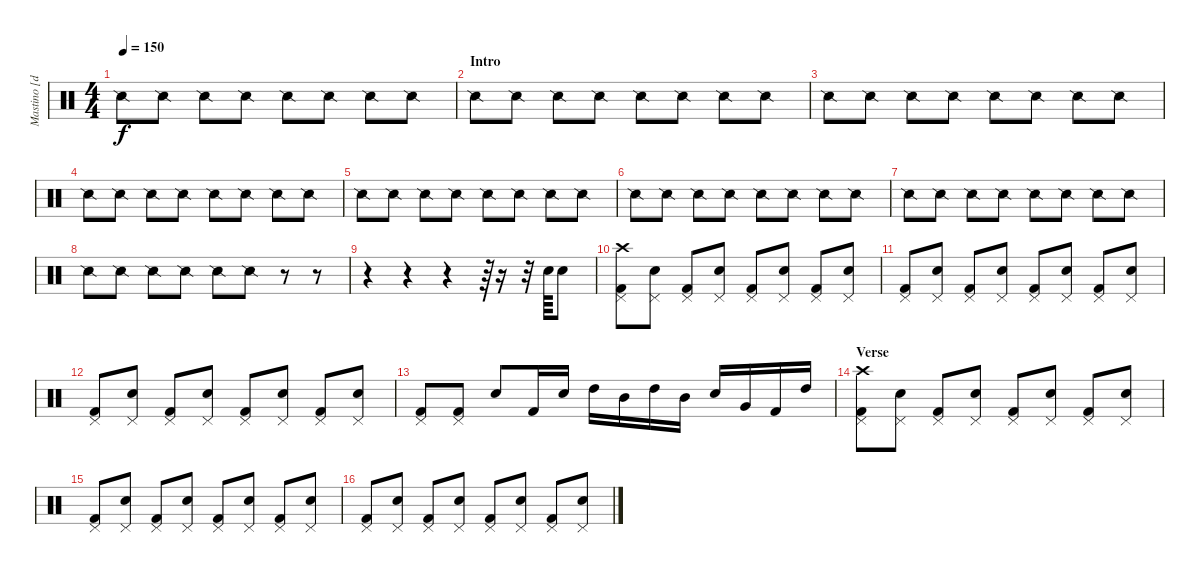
\track ("Mastino [drums]" "Mastino [d") {instrument percussion}
\staff {score}
\articulation defaults
\ts (4 4)
\tempo 150
\clef neutral
\ks c "Snare (side stick) 2".8{dy f} "Snare (side stick) 2".8 "Snare (side stick) 2".8 "Snare (side stick) 2".8 "Snare (side stick) 2".8 "Snare (side stick) 2".8 "Snare (side stick) 2".8 "Snare (side stick) 2".8
|
\section ("" "Intro")
"Snare (side stick) 2".8 "Snare (side stick) 2".8 "Snare (side stick) 2".8 "Snare (side stick) 2".8 "Snare (side stick) 2".8 "Snare (side stick) 2".8 "Snare (side stick) 2".8 "Snare (side stick) 2".8 |
"Snare (side stick) 2".8 "Snare (side stick) 2".8 "Snare (side stick) 2".8 "Snare (side stick) 2".8 "Snare (side stick) 2".8 "Snare (side stick) 2".8 "Snare (side stick) 2".8 "Snare (side stick) 2".8 |
"Snare (side stick) 2".8 "Snare (side stick) 2".8 "Snare (side stick) 2".8 "Snare (side stick) 2".8 "Snare (side stick) 2".8 "Snare (side stick) 2".8 "Snare (side stick) 2".8 "Snare (side stick) 2".8 |
"Snare (side stick) 2".8 "Snare (side stick) 2".8 "Snare (side stick) 2".8 "Snare (side stick) 2".8 "Snare (side stick) 2".8 "Snare (side stick) 2".8 "Snare (side stick) 2".8 "Snare (side stick) 2".8 |
"Snare (side stick) 2".8 "Snare (side stick) 2".8 "Snare (side stick) 2".8 "Snare (side stick) 2".8 "Snare (side stick) 2".8 "Snare (side stick) 2".8 "Snare (side stick) 2".8 "Snare (side stick) 2".8 |
"Snare (side stick) 2".8 "Snare (side stick) 2".8 "Snare (side stick) 2".8 "Snare (side stick) 2".8 "Snare (side stick) 2".8 "Snare (side stick) 2".8 "Snare (side stick) 2".8 "Snare (side stick) 2".8 |
"Snare (side stick) 2".8 "Snare (side stick) 2".8 "Snare (side stick) 2".8 "Snare (side stick) 2".8 "Snare (side stick) 2".8 "Snare (side stick) 2".8 r.8 r.8 |
r.4 r.4 r.4 r.64 r.16 r.32 "Electric Snare (hit)".64 "Electric Snare (hit)".8 |
("Crash high (hit)" "Pedal Hi-Hat (hit)" "Kick (hit) 2").8 ("Pedal Hi-Hat (hit)" "Electric Snare (hit)").8 ("Pedal Hi-Hat (hit)" "Kick (hit) 2").8 ("Pedal Hi-Hat (hit)" "Electric Snare (hit)").8 ("Pedal Hi-Hat (hit)" "Kick (hit) 2").8 ("Pedal Hi-Hat (hit)" "Electric Snare (hit)").8 ("Pedal Hi-Hat (hit)" "Kick (hit) 2").8 ("Pedal Hi-Hat (hit)" "Electric Snare (hit)").8 |
("Pedal Hi-Hat (hit)" "Kick (hit) 2").8 ("Pedal Hi-Hat (hit)" "Electric Snare (hit)").8 ("Pedal Hi-Hat (hit)" "Kick (hit) 2").8 ("Pedal Hi-Hat (hit)" "Electric Snare (hit)").8 ("Pedal Hi-Hat (hit)" "Kick (hit) 2").8 ("Pedal Hi-Hat (hit)" "Electric Snare (hit)").8 ("Pedal Hi-Hat (hit)" "Kick (hit) 2").8 ("Pedal Hi-Hat (hit)" "Electric Snare (hit)").8 |
("Pedal Hi-Hat (hit)" "Kick (hit) 2").8 ("Pedal Hi-Hat (hit)" "Electric Snare (hit)").8 ("Pedal Hi-Hat (hit)" "Kick (hit) 2").8 ("Pedal Hi-Hat (hit)" "Electric Snare (hit)").8 ("Pedal Hi-Hat (hit)" "Kick (hit) 2").8 ("Pedal Hi-Hat (hit)" "Electric Snare (hit)").8 ("Pedal Hi-Hat (hit)" "Kick (hit) 2").8 ("Pedal Hi-Hat (hit)" "Electric Snare (hit)").8 |
("Pedal Hi-Hat (hit)" "Kick (hit) 2").8 ("Pedal Hi-Hat (hit)" "Kick (hit) 2").8 "Electric Snare (hit)".8 "Kick (hit) 2".16 "Electric Snare (hit)".16 "High Tom (hit)".16 "Mid Tom (hit)".16 "High Tom (hit)".16 "Mid Tom (hit)".16 "Electric Snare (hit)".16 "Very Low Tom (hit)".16 "Kick (hit) 2".16 "High Tom (hit)".16 |
\section ("" "Verse")
("Crash high (hit)" "Pedal Hi-Hat (hit)" "Kick (hit) 2").8 ("Pedal Hi-Hat (hit)" "Electric Snare (hit)").8 ("Pedal Hi-Hat (hit)" "Kick (hit) 2").8 ("Pedal Hi-Hat (hit)" "Electric Snare (hit)").8 ("Pedal Hi-Hat (hit)" "Kick (hit) 2").8 ("Pedal Hi-Hat (hit)" "Electric Snare (hit)").8 ("Pedal Hi-Hat (hit)" "Kick (hit) 2").8 ("Pedal Hi-Hat (hit)" "Electric Snare (hit)").8 |
("Pedal Hi-Hat (hit)" "Kick (hit) 2").8 ("Pedal Hi-Hat (hit)" "Electric Snare (hit)").8 ("Pedal Hi-Hat (hit)" "Kick (hit) 2").8 ("Pedal Hi-Hat (hit)" "Electric Snare (hit)").8 ("Pedal Hi-Hat (hit)" "Kick (hit) 2").8 ("Pedal Hi-Hat (hit)" "Electric Snare (hit)").8 ("Pedal Hi-Hat (hit)" "Kick (hit) 2").8 ("Pedal Hi-Hat (hit)" "Electric Snare (hit)").8 |
("Pedal Hi-Hat (hit)" "Kick (hit) 2").8 ("Pedal Hi-Hat (hit)" "Electric Snare (hit)").8 ("Pedal Hi-Hat (hit)" "Kick (hit) 2").8 ("Pedal Hi-Hat (hit)" "Electric Snare (hit)").8 ("Pedal Hi-Hat (hit)" "Kick (hit) 2").8 ("Pedal Hi-Hat (hit)" "Electric Snare (hit)").8 ("Pedal Hi-Hat (hit)" "Kick (hit) 2").8 ("Pedal Hi-Hat (hit)" "Electric Snare (hit)").8
